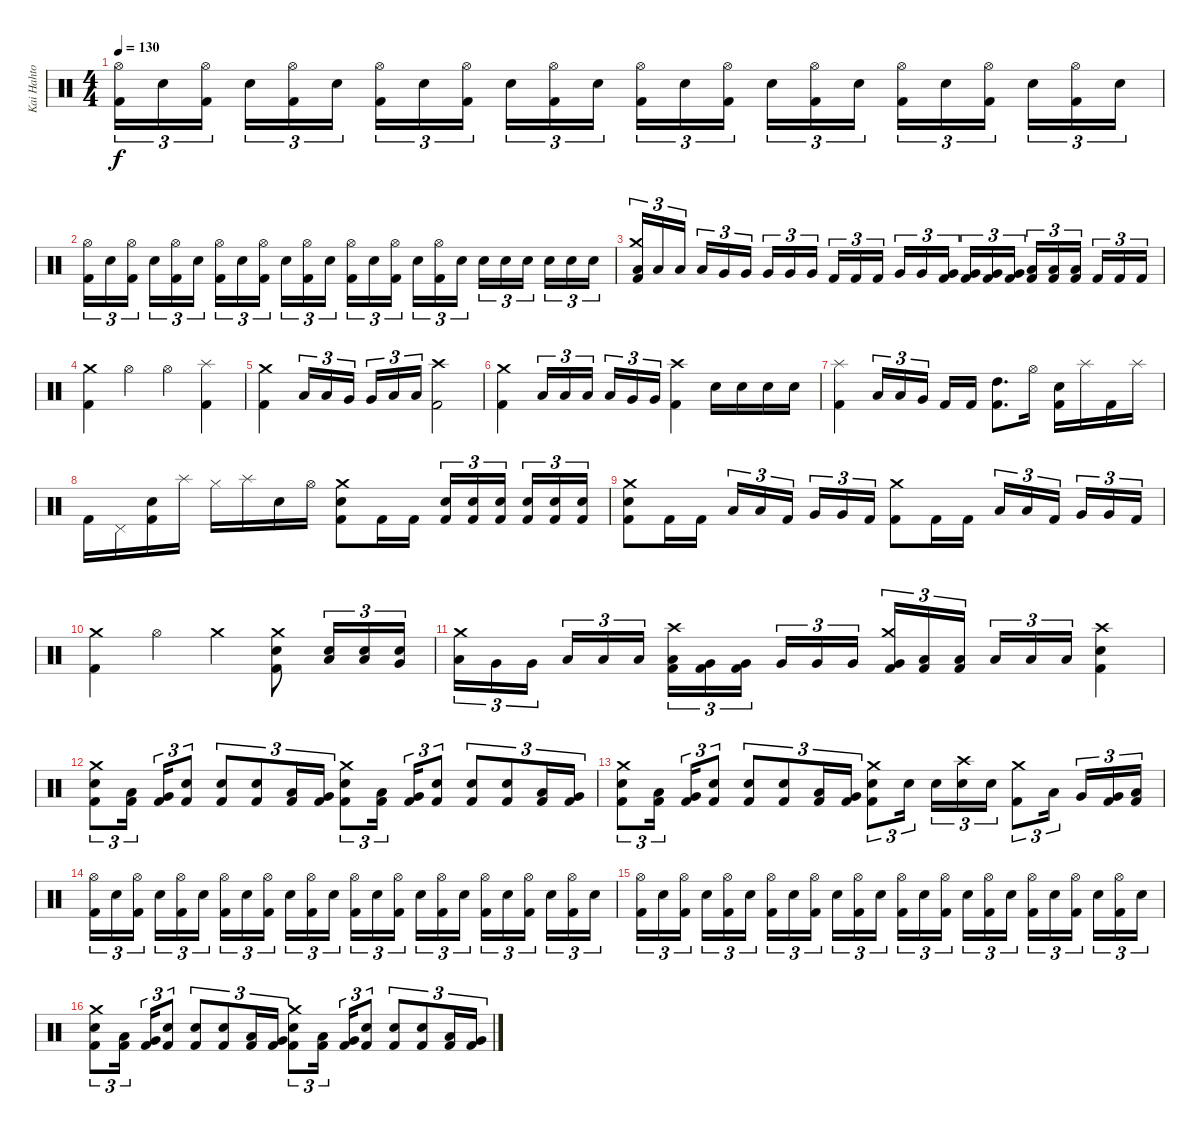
\track ("Kai Hahto" "Kai Hahto") {instrument percussion}
\staff {score}
\articulation defaults
\ts (4 4)
\tempo 130
\clef neutral
\ks c
("Hi-Hat (open)" "Kick (hit) 2").16{tu (3 2) dy f} "Snare (hit) 2".16{tu (3 2)} ("Hi-Hat (open)" "Kick (hit) 2").16{tu (3 2) beam splitsecondary} "Snare (hit) 2".16{tu (3 2)} ("Hi-Hat (open)" "Kick (hit) 2").16{tu (3 2)} "Snare (hit) 2".16{tu (3 2)} ("Hi-Hat (open)" "Kick (hit) 2").16{tu (3 2)} "Snare (hit) 2".16{tu (3 2)} ("Hi-Hat (open)" "Kick (hit) 2").16{tu (3 2) beam splitsecondary} "Snare (hit) 2".16{tu (3 2)} ("Hi-Hat (open)" "Kick (hit) 2").16{tu (3 2)} "Snare (hit) 2".16{tu (3 2)} ("Hi-Hat (open)" "Kick (hit) 2").16{tu (3 2)} "Snare (hit) 2".16{tu (3 2)} ("Hi-Hat (open)" "Kick (hit) 2").16{tu (3 2) beam splitsecondary} "Snare (hit) 2".16{tu (3 2)} ("Hi-Hat (open)" "Kick (hit) 2").16{tu (3 2)} "Snare (hit) 2".16{tu (3 2)} ("Hi-Hat (open)" "Kick (hit) 2").16{tu (3 2)} "Snare (hit) 2".16{tu (3 2)} ("Hi-Hat (open)" "Kick (hit) 2").16{tu (3 2) beam splitsecondary} "Snare (hit) 2".16{tu (3 2)} ("Hi-Hat (open)" "Kick (hit) 2").16{tu (3 2)} "Snare (hit) 2".16{tu (3 2)} |
("Hi-Hat (open)" "Kick (hit) 2").16{tu (3 2)} "Snare (hit) 2".16{tu (3 2)} ("Hi-Hat (open)" "Kick (hit) 2").16{tu (3 2) beam splitsecondary} "Snare (hit) 2".16{tu (3 2)} ("Hi-Hat (open)" "Kick (hit) 2").16{tu (3 2)} "Snare (hit) 2".16{tu (3 2)} ("Hi-Hat (open)" "Kick (hit) 2").16{tu (3 2)} "Snare (hit) 2".16{tu (3 2)} ("Hi-Hat (open)" "Kick (hit) 2").16{tu (3 2) beam splitsecondary} "Snare (hit) 2".16{tu (3 2)} ("Hi-Hat (open)" "Kick (hit) 2").16{tu (3 2)} "Snare (hit) 2".16{tu (3 2)} ("Hi-Hat (open)" "Kick (hit) 2").16{tu (3 2)} "Snare (hit) 2".16{tu (3 2)} ("Hi-Hat (open)" "Kick (hit) 2").16{tu (3 2) beam splitsecondary} "Snare (hit) 2".16{tu (3 2)} ("Hi-Hat (open)" "Kick (hit) 2").16{tu (3 2)} "Snare (hit) 2".16{tu (3 2)} "Snare (hit) 2".16{tu (3 2)} "Snare (hit) 2".16{tu (3 2)} "Snare (hit) 2".16{tu (3 2) beam splitsecondary} "Snare (hit) 2".16{tu (3 2)} "Snare (hit) 2".16{tu (3 2)} "Snare (hit) 2".16{tu (3 2)} |
("Crash medium (hit)" "Low Tom (hit)" "Kick (hit) 2").16{tu (3 2)} "Low Tom (hit)".16{tu (3 2)} "Low Tom (hit)".16{tu (3 2) beam splitsecondary} "Low Tom (hit)".16{tu (3 2)} "Very Low Tom (hit)".16{tu (3 2)} "Very Low Tom (hit)".16{tu (3 2)} "Very Low Tom (hit)".16{tu (3 2)} "Very Low Tom (hit)".16{tu (3 2)} "Very Low Tom (hit)".16{tu (3 2) beam splitsecondary} "Kick (hit) 2".16{tu (3 2)} "Kick (hit) 2".16{tu (3 2)} "Kick (hit) 2".16{tu (3 2)} "Very Low Tom (hit)".16{tu (3 2)} "Very Low Tom (hit)".16{tu (3 2)} ("Very Low Tom (hit)" "Kick (hit) 2").16{tu (3 2) beam splitsecondary} ("Very Low Tom (hit)" "Kick (hit) 2").16{tu (3 2)} ("Very Low Tom (hit)" "Kick (hit) 2").16{tu (3 2)} ("Very Low Tom (hit)" "Kick (hit) 2").16{tu (3 2)} ("Low Floor Tom (hit)" "Kick (hit) 2").16{tu (3 2)} ("Low Floor Tom (hit)" "Kick (hit) 2").16{tu (3 2)} ("Low Floor Tom (hit)" "Kick (hit) 2").16{tu (3 2) beam splitsecondary} "Kick (hit) 2".16{tu (3 2)} "Kick (hit) 2".16{tu (3 2)} "Kick (hit) 2".16{tu (3 2)} |
("Crash medium (hit)" "Kick (hit) 2").4 "Hi-Hat (open)".4 "Hi-Hat (open)".4 ("Splash (hit)" "Kick (hit) 2").4 |
("Crash medium (hit)" "Kick (hit) 2").4 "Low Tom (hit)".16{tu (3 2)} "Low Tom (hit)".16{tu (3 2)} "Very Low Tom (hit)".16{tu (3 2) beam splitsecondary} "Very Low Tom (hit)".16{tu (3 2)} "Low Floor Tom (hit)".16{tu (3 2)} "Low Floor Tom (hit)".16{tu (3 2)} ("Crash high (hit)" "Kick (hit) 2").2 |
("Crash medium (hit)" "Kick (hit) 2").4 "Low Tom (hit)".16{tu (3 2)} "Low Tom (hit)".16{tu (3 2)} "Low Tom (hit)".16{tu (3 2) beam splitsecondary} "Low Tom (hit)".16{tu (3 2)} "Very Low Tom (hit)".16{tu (3 2)} "Very Low Tom (hit)".16{tu (3 2)} ("Crash high (hit)" "Kick (hit) 2").4 "Snare (hit) 2".16 "Snare (hit) 2".16 "Snare (hit) 2".16 "Snare (hit) 2".16 |
("Splash (hit)" "Kick (hit) 2").4 "Low Tom (hit)".16{tu (3 2)} "Low Tom (hit)".16{tu (3 2)} "Very Low Tom (hit)".16{tu (3 2) beam splitsecondary} "Kick (hit) 2".16 "Kick (hit) 2".16 ("High Tom (hit)" "Kick (hit) 2").8{d} "Hi-Hat (open)".16 ("Snare (hit) 2" "Kick (hit) 2").16 "Splash (hit)".16 "Kick (hit) 2".16 "Splash (hit)".16 |
"Kick (hit) 2".16 "Pedal Hi-Hat (hit)".16 ("Snare (hit) 2" "Kick (hit) 2").16 "Splash (hit)".16 "Hi-Hat (closed)".16 "Splash (hit)".16 "Snare (hit) 2".16 "Hi-Hat (open)".16 ("Crash medium (hit)" "Snare (hit) 2" "Kick (hit) 2").8 "Kick (hit) 2".16 "Kick (hit) 2".16 ("Snare (hit) 2" "Kick (hit) 2").16{tu (3 2)} ("Snare (hit) 2" "Kick (hit) 2").16{tu (3 2)} ("Snare (hit) 2" "Kick (hit) 2").16{tu (3 2) beam splitsecondary} ("Snare (hit) 2" "Kick (hit) 2").16{tu (3 2)} ("Snare (hit) 2" "Kick (hit) 2").16{tu (3 2)} ("Snare (hit) 2" "Kick (hit) 2").16{tu (3 2)} |
("Crash medium (hit)" "Snare (hit) 2" "Kick (hit) 2").8 "Kick (hit) 2".16 "Kick (hit) 2".16 "Low Tom (hit)".16{tu (3 2)} "Low Tom (hit)".16{tu (3 2)} "Kick (hit) 2".16{tu (3 2) beam splitsecondary} "Very Low Tom (hit)".16{tu (3 2)} "Very Low Tom (hit)".16{tu (3 2)} "Kick (hit) 2".16{tu (3 2)} ("Crash medium (hit)" "Kick (hit) 2").8 "Kick (hit) 2".16 "Kick (hit) 2".16 "Low Tom (hit)".16{tu (3 2)} "Low Tom (hit)".16{tu (3 2)} "Kick (hit) 2".16{tu (3 2) beam splitsecondary} "Very Low Tom (hit)".16{tu (3 2)} "Very Low Tom (hit)".16{tu (3 2)} "Kick (hit) 2".16{tu (3 2)} |
("Crash medium (hit)" "Kick (hit) 2").4 "Hi-Hat (open)".4 "Crash medium (hit)".4 ("Crash medium (hit)" "Snare (hit) 2" "Kick (hit) 2").8 ("Low Tom (hit)" "Snare (hit) 2").16{tu (3 2)} ("Low Tom (hit)" "Snare (hit) 2").16{tu (3 2)} ("Very Low Tom (hit)" "Snare (hit) 2").16{tu (3 2)} |
("Crash medium (hit)" "Low Tom (hit)").16{tu (3 2)} "Very Low Tom (hit)".16{tu (3 2)} "Very Low Tom (hit)".16{tu (3 2) beam splitsecondary} "Low Tom (hit)".16{tu (3 2)} "Low Tom (hit)".16{tu (3 2)} "Low Tom (hit)".16{tu (3 2)} ("Crash high (hit)" "Low Tom (hit)" "Kick (hit) 2").16{tu (3 2)} ("Very Low Tom (hit)" "Kick (hit) 2").16{tu (3 2)} ("Very Low Tom (hit)" "Kick (hit) 2").16{tu (3 2) beam splitsecondary} "Very Low Tom (hit)".16{tu (3 2)} "Very Low Tom (hit)".16{tu (3 2)} "Very Low Tom (hit)".16{tu (3 2)} ("Crash medium (hit)" "Very Low Tom (hit)" "Kick (hit) 2").16{tu (3 2)} ("Low Floor Tom (hit)" "Kick (hit) 2").16{tu (3 2)} ("Low Floor Tom (hit)" "Kick (hit) 2").16{tu (3 2) beam splitsecondary} "Low Floor Tom (hit)".16{tu (3 2)} "Low Floor Tom (hit)".16{tu (3 2)} "Low Floor Tom (hit)".16{tu (3 2)} ("Crash high (hit)" "Snare (hit) 2" "Kick (hit) 2").4 |
("Crash medium (hit)" "Snare (hit) 2" "Kick (hit) 2").8{tu (3 2)} ("Low Tom (hit)" "Kick (hit) 2").16{tu (3 2) beam splitsecondary} ("Very Low Tom (hit)" "Kick (hit) 2").16{tu (3 2)} ("Snare (hit) 2" "Kick (hit) 2").8{tu (3 2)} ("Snare (hit) 2" "Kick (hit) 2").8{tu (3 2)} ("Snare (hit) 2" "Kick (hit) 2").8{tu (3 2)} ("Low Tom (hit)" "Kick (hit) 2").16{tu (3 2)} ("Very Low Tom (hit)" "Kick (hit) 2").16{tu (3 2)} ("Crash medium (hit)" "Snare (hit) 2" "Kick (hit) 2").8{tu (3 2)} ("Low Tom (hit)" "Kick (hit) 2").16{tu (3 2) beam splitsecondary} ("Very Low Tom (hit)" "Kick (hit) 2").16{tu (3 2)} ("Snare (hit) 2" "Kick (hit) 2").8{tu (3 2)} ("Snare (hit) 2" "Kick (hit) 2").8{tu (3 2)} ("Snare (hit) 2" "Kick (hit) 2").8{tu (3 2)} ("Low Tom (hit)" "Kick (hit) 2").16{tu (3 2)} ("Very Low Tom (hit)" "Kick (hit) 2").16{tu (3 2)} |
("Crash medium (hit)" "Snare (hit) 2" "Kick (hit) 2").8{tu (3 2)} ("Low Tom (hit)" "Kick (hit) 2").16{tu (3 2) beam splitsecondary} ("Very Low Tom (hit)" "Kick (hit) 2").16{tu (3 2)} ("Snare (hit) 2" "Kick (hit) 2").8{tu (3 2)} ("Snare (hit) 2" "Kick (hit) 2").8{tu (3 2)} ("Snare (hit) 2" "Kick (hit) 2").8{tu (3 2)} ("Low Tom (hit)" "Kick (hit) 2").16{tu (3 2)} ("Very Low Tom (hit)" "Kick (hit) 2").16{tu (3 2)} ("Crash medium (hit)" "Snare (hit) 2" "Kick (hit) 2").8{tu (3 2)} "Snare (hit) 2".16{tu (3 2) beam splitsecondary} "Snare (hit) 2".16{tu (3 2)} ("Crash high (hit)" "Snare (hit) 2").16{tu (3 2)} "Snare (hit) 2".16{tu (3 2)} ("Crash medium (hit)" "Kick (hit) 2").8{tu (3 2)} "Low Tom (hit)".16{tu (3 2) beam splitsecondary} "Very Low Tom (hit)".16{tu (3 2)} ("Very Low Tom (hit)" "Kick (hit) 2").16{tu (3 2)} ("Low Floor Tom (hit)" "Kick (hit) 2").16{tu (3 2)} |
("Hi-Hat (open)" "Kick (hit) 2").16{tu (3 2)} "Snare (hit) 2".16{tu (3 2)} ("Hi-Hat (open)" "Kick (hit) 2").16{tu (3 2) beam splitsecondary} "Snare (hit) 2".16{tu (3 2)} ("Hi-Hat (open)" "Kick (hit) 2").16{tu (3 2)} "Snare (hit) 2".16{tu (3 2)} ("Hi-Hat (open)" "Kick (hit) 2").16{tu (3 2)} "Snare (hit) 2".16{tu (3 2)} ("Hi-Hat (open)" "Kick (hit) 2").16{tu (3 2) beam splitsecondary} "Snare (hit) 2".16{tu (3 2)} ("Hi-Hat (open)" "Kick (hit) 2").16{tu (3 2)} "Snare (hit) 2".16{tu (3 2)} ("Hi-Hat (open)" "Kick (hit) 2").16{tu (3 2)} "Snare (hit) 2".16{tu (3 2)} ("Hi-Hat (open)" "Kick (hit) 2").16{tu (3 2) beam splitsecondary} "Snare (hit) 2".16{tu (3 2)} ("Hi-Hat (open)" "Kick (hit) 2").16{tu (3 2)} "Snare (hit) 2".16{tu (3 2)} ("Hi-Hat (open)" "Kick (hit) 2").16{tu (3 2)} "Snare (hit) 2".16{tu (3 2)} ("Hi-Hat (open)" "Kick (hit) 2").16{tu (3 2) beam splitsecondary} "Snare (hit) 2".16{tu (3 2)} ("Hi-Hat (open)" "Kick (hit) 2").16{tu (3 2)} "Snare (hit) 2".16{tu (3 2)} |
("Hi-Hat (open)" "Kick (hit) 2").16{tu (3 2)} "Snare (hit) 2".16{tu (3 2)} ("Hi-Hat (open)" "Kick (hit) 2").16{tu (3 2) beam splitsecondary} "Snare (hit) 2".16{tu (3 2)} ("Hi-Hat (open)" "Kick (hit) 2").16{tu (3 2)} "Snare (hit) 2".16{tu (3 2)} ("Hi-Hat (open)" "Kick (hit) 2").16{tu (3 2)} "Snare (hit) 2".16{tu (3 2)} ("Hi-Hat (open)" "Kick (hit) 2").16{tu (3 2) beam splitsecondary} "Snare (hit) 2".16{tu (3 2)} ("Hi-Hat (open)" "Kick (hit) 2").16{tu (3 2)} "Snare (hit) 2".16{tu (3 2)} ("Hi-Hat (open)" "Kick (hit) 2").16{tu (3 2)} "Snare (hit) 2".16{tu (3 2)} ("Hi-Hat (open)" "Kick (hit) 2").16{tu (3 2) beam splitsecondary} "Snare (hit) 2".16{tu (3 2)} ("Hi-Hat (open)" "Kick (hit) 2").16{tu (3 2)} "Snare (hit) 2".16{tu (3 2)} ("Hi-Hat (open)" "Kick (hit) 2").16{tu (3 2)} "Snare (hit) 2".16{tu (3 2)} ("Hi-Hat (open)" "Kick (hit) 2").16{tu (3 2) beam splitsecondary} "Snare (hit) 2".16{tu (3 2)} ("Hi-Hat (open)" "Kick (hit) 2").16{tu (3 2)} "Snare (hit) 2".16{tu (3 2)} |
("Crash medium (hit)" "Snare (hit) 2" "Kick (hit) 2").8{tu (3 2)} ("Low Tom (hit)" "Kick (hit) 2").16{tu (3 2) beam splitsecondary} ("Very Low Tom (hit)" "Kick (hit) 2").16{tu (3 2)} ("Snare (hit) 2" "Kick (hit) 2").8{tu (3 2)} ("Snare (hit) 2" "Kick (hit) 2").8{tu (3 2)} ("Snare (hit) 2" "Kick (hit) 2").8{tu (3 2)} ("Low Tom (hit)" "Kick (hit) 2").16{tu (3 2)} ("Very Low Tom (hit)" "Kick (hit) 2").16{tu (3 2)} ("Crash medium (hit)" "Snare (hit) 2" "Kick (hit) 2").8{tu (3 2)} ("Low Tom (hit)" "Kick (hit) 2").16{tu (3 2) beam splitsecondary} ("Very Low Tom (hit)" "Kick (hit) 2").16{tu (3 2)} ("Snare (hit) 2" "Kick (hit) 2").8{tu (3 2)} ("Snare (hit) 2" "Kick (hit) 2").8{tu (3 2)} ("Snare (hit) 2" "Kick (hit) 2").8{tu (3 2)} ("Low Tom (hit)" "Kick (hit) 2").16{tu (3 2)} ("Very Low Tom (hit)" "Kick (hit) 2").16{tu (3 2)}
